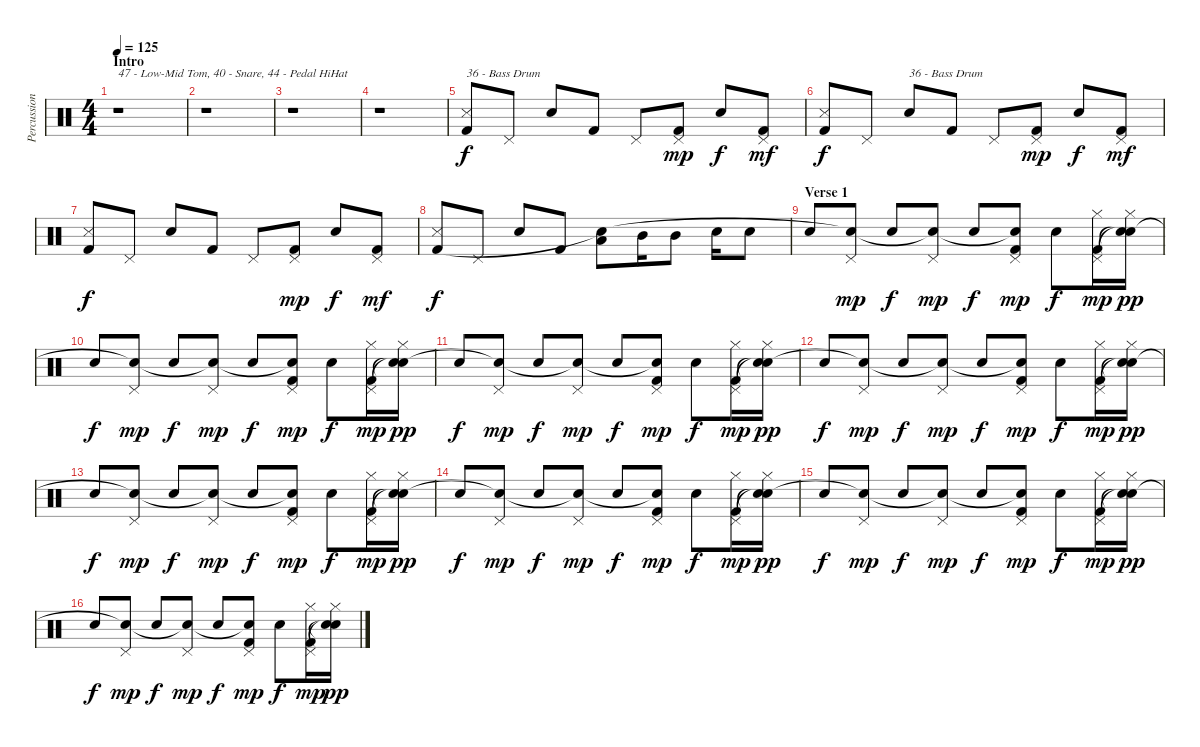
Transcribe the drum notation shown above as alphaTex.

\track ("Percussion" "Percussion") {instrument percussion}
\staff {score}
\articulation defaults
\ts (4 4)
\section ("" "Intro")
\tempo 125
\clef neutral
\ks c
r.1{txt "47 - Low-Mid Tom, 40 - Snare, 44 - Pedal HiHat" dy f} |
r.1 |
r.1 |
r.1 |
("Snare (side stick) 3" "Kick (hit) 2").8{txt "36 - Bass Drum"} "Pedal Hi-Hat (hit)".8 "Electric Snare (hit)".8 "Kick (hit) 2".8 "Pedal Hi-Hat (hit)".8 ("Pedal Hi-Hat (hit)" "Kick (hit) 2").8{dy mp} "Electric Snare (hit)".8{dy f} ("Pedal Hi-Hat (hit)" "Kick (hit) 2").8{dy mf} |
("Snare (side stick) 3" "Kick (hit) 2").8{dy f} "Pedal Hi-Hat (hit)".8 "Electric Snare (hit)".8{txt "36 - Bass Drum"} "Kick (hit) 2".8 "Pedal Hi-Hat (hit)".8 ("Pedal Hi-Hat (hit)" "Kick (hit) 2").8{dy mp} "Electric Snare (hit)".8{dy f} ("Pedal Hi-Hat (hit)" "Kick (hit) 2").8{dy mf} |
("Snare (side stick) 3" "Kick (hit) 2").8{dy f} "Pedal Hi-Hat (hit)".8 "Electric Snare (hit)".8 "Kick (hit) 2".8 "Pedal Hi-Hat (hit)".8 ("Pedal Hi-Hat (hit)" "Kick (hit) 2").8{dy mp} "Electric Snare (hit)".8{dy f} ("Pedal Hi-Hat (hit)" "Kick (hit) 2").8{dy mf} |
("Snare (side stick) 3" "Kick (hit) 2").8{dy f} "Pedal Hi-Hat (hit)".8 "Electric Snare (hit)".8 "Kick (hit) 2".8 ("Low Tom (hit)" "Snare (hit)"{t}).8 "Mid Tom (hit)".16 "Mid Tom (hit)".8 "Electric Snare (hit)".16 "Electric Snare (hit)".8 |
\section ("" "Verse 1")
"Electric Snare (hit)".8 ("Pedal Hi-Hat (hit)" "Snare (hit)"{t}).8{dy mp} "Electric Snare (hit)".8{dy f} ("Pedal Hi-Hat (hit)" "Snare (hit)"{t}).8{dy mp} "Electric Snare (hit)".8{dy f} ("Pedal Hi-Hat (hit)" "Snare (hit)"{t} "Kick (hit) 2").8{dy mp} "Electric Snare (hit)".8{dy f} ("Hi-Hat (closed)" "Pedal Hi-Hat (hit)" "Kick (hit) 2").16{dy mp} ("Hi-Hat (closed)" "Snare (hit)"{t} "Snare (hit)"{t}).16{dy pp} |
"Electric Snare (hit)".8{dy f} ("Pedal Hi-Hat (hit)" "Snare (hit)"{t}).8{dy mp} "Electric Snare (hit)".8{dy f} ("Pedal Hi-Hat (hit)" "Snare (hit)"{t}).8{dy mp} "Electric Snare (hit)".8{dy f} ("Pedal Hi-Hat (hit)" "Snare (hit)"{t} "Kick (hit) 2").8{dy mp} "Electric Snare (hit)".8{dy f} ("Hi-Hat (closed)" "Pedal Hi-Hat (hit)" "Kick (hit) 2").16{dy mp} ("Hi-Hat (closed)" "Snare (hit)"{t} "Snare (hit)"{t}).16{dy pp} |
"Electric Snare (hit)".8{dy f} ("Pedal Hi-Hat (hit)" "Snare (hit)"{t}).8{dy mp} "Electric Snare (hit)".8{dy f} ("Pedal Hi-Hat (hit)" "Snare (hit)"{t}).8{dy mp} "Electric Snare (hit)".8{dy f} ("Pedal Hi-Hat (hit)" "Snare (hit)"{t} "Kick (hit) 2").8{dy mp} "Electric Snare (hit)".8{dy f} ("Hi-Hat (closed)" "Pedal Hi-Hat (hit)" "Kick (hit) 2").16{dy mp} ("Hi-Hat (closed)" "Snare (hit)"{t} "Snare (hit)"{t}).16{dy pp} |
"Electric Snare (hit)".8{dy f} ("Pedal Hi-Hat (hit)" "Snare (hit)"{t}).8{dy mp} "Electric Snare (hit)".8{dy f} ("Pedal Hi-Hat (hit)" "Snare (hit)"{t}).8{dy mp} "Electric Snare (hit)".8{dy f} ("Pedal Hi-Hat (hit)" "Snare (hit)"{t} "Kick (hit) 2").8{dy mp} "Electric Snare (hit)".8{dy f} ("Hi-Hat (closed)" "Pedal Hi-Hat (hit)" "Kick (hit) 2").16{dy mp} ("Hi-Hat (closed)" "Snare (hit)"{t} "Snare (hit)"{t}).16{dy pp} |
"Electric Snare (hit)".8{dy f} ("Pedal Hi-Hat (hit)" "Snare (hit)"{t}).8{dy mp} "Electric Snare (hit)".8{dy f} ("Pedal Hi-Hat (hit)" "Snare (hit)"{t}).8{dy mp} "Electric Snare (hit)".8{dy f} ("Pedal Hi-Hat (hit)" "Snare (hit)"{t} "Kick (hit) 2").8{dy mp} "Electric Snare (hit)".8{dy f} ("Hi-Hat (closed)" "Pedal Hi-Hat (hit)" "Kick (hit) 2").16{dy mp} ("Hi-Hat (closed)" "Snare (hit)"{t} "Snare (hit)"{t}).16{dy pp} |
"Electric Snare (hit)".8{dy f} ("Pedal Hi-Hat (hit)" "Snare (hit)"{t}).8{dy mp} "Electric Snare (hit)".8{dy f} ("Pedal Hi-Hat (hit)" "Snare (hit)"{t}).8{dy mp} "Electric Snare (hit)".8{dy f} ("Pedal Hi-Hat (hit)" "Snare (hit)"{t} "Kick (hit) 2").8{dy mp} "Electric Snare (hit)".8{dy f} ("Hi-Hat (closed)" "Pedal Hi-Hat (hit)" "Kick (hit) 2").16{dy mp} ("Hi-Hat (closed)" "Snare (hit)"{t} "Snare (hit)"{t}).16{dy pp} |
"Electric Snare (hit)".8{dy f} ("Pedal Hi-Hat (hit)" "Snare (hit)"{t}).8{dy mp} "Electric Snare (hit)".8{dy f} ("Pedal Hi-Hat (hit)" "Snare (hit)"{t}).8{dy mp} "Electric Snare (hit)".8{dy f} ("Pedal Hi-Hat (hit)" "Snare (hit)"{t} "Kick (hit) 2").8{dy mp} "Electric Snare (hit)".8{dy f} ("Hi-Hat (closed)" "Pedal Hi-Hat (hit)" "Kick (hit) 2").16{dy mp} ("Hi-Hat (closed)" "Snare (hit)"{t} "Snare (hit)"{t}).16{dy pp} |
"Electric Snare (hit)".8{dy f} ("Pedal Hi-Hat (hit)" "Snare (hit)"{t}).8{dy mp} "Electric Snare (hit)".8{dy f} ("Pedal Hi-Hat (hit)" "Snare (hit)"{t}).8{dy mp} "Electric Snare (hit)".8{dy f} ("Pedal Hi-Hat (hit)" "Snare (hit)"{t} "Kick (hit) 2").8{dy mp} "Electric Snare (hit)".8{dy f} ("Hi-Hat (closed)" "Pedal Hi-Hat (hit)" "Kick (hit) 2").16{dy mp} ("Hi-Hat (closed)" "Snare (hit)"{t} "Snare (hit)"{t}).16{dy pp}
